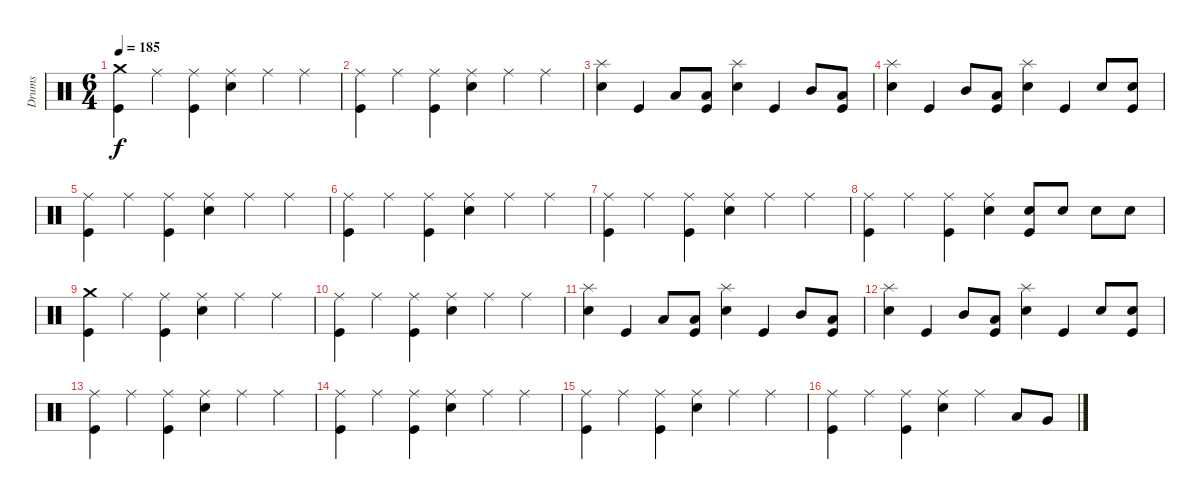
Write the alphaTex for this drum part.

\track ("Drums" "Drums") {instrument percussion}
\staff {score}
\articulation defaults
\ts (6 4)
\tempo 185
\clef neutral
\ks c
("Crash medium (hit)" "Kick (hit)").4{dy f} "Ride (middle)".4 ("Ride (middle)" "Kick (hit)").4 ("Ride (middle)" "Electric Snare (hit)").4 "Ride (middle)".4 "Ride (middle)".4 |
("Ride (middle)" "Kick (hit)").4 "Ride (middle)".4 ("Ride (middle)" "Kick (hit)").4 ("Ride (middle)" "Electric Snare (hit)").4 "Ride (middle)".4 "Ride (middle)".4 |
("Splash (hit)" "Electric Snare (hit)").4 "Kick (hit)".4 "Low Tom (hit)".8 ("Low Tom (hit)" "Kick (hit)").8 ("Splash (hit)" "Electric Snare (hit)").4 "Kick (hit)".4 "Mid Tom (hit)".8 ("Low Tom (hit)" "Kick (hit)").8 |
("Splash (hit)" "Electric Snare (hit)").4 "Kick (hit)".4 "Mid Tom (hit)".8 ("Low Tom (hit)" "Kick (hit)").8 ("Splash (hit)" "Electric Snare (hit)").4 "Kick (hit)".4 "Electric Snare (hit)".8 ("Electric Snare (hit)" "Kick (hit)").8 |
("Ride (middle)" "Kick (hit)").4 "Ride (middle)".4 ("Ride (middle)" "Kick (hit)").4 ("Ride (middle)" "Electric Snare (hit)").4 "Ride (middle)".4 "Ride (middle)".4 |
("Ride (middle)" "Kick (hit)").4 "Ride (middle)".4 ("Ride (middle)" "Kick (hit)").4 ("Ride (middle)" "Electric Snare (hit)").4 "Ride (middle)".4 "Ride (middle)".4 |
("Ride (middle)" "Kick (hit)").4 "Ride (middle)".4 ("Ride (middle)" "Kick (hit)").4 ("Ride (middle)" "Electric Snare (hit)").4 "Ride (middle)".4 "Ride (middle)".4 |
("Ride (middle)" "Kick (hit)").4 "Ride (middle)".4 ("Ride (middle)" "Kick (hit)").4 ("Ride (middle)" "Electric Snare (hit)").4 ("Electric Snare (hit)" "Kick (hit)").8 "Electric Snare (hit)".8 "Electric Snare (hit)".8 "Electric Snare (hit)".8 |
("Crash medium (hit)" "Kick (hit)").4 "Ride (middle)".4 ("Ride (middle)" "Kick (hit)").4 ("Ride (middle)" "Electric Snare (hit)").4 "Ride (middle)".4 "Ride (middle)".4 |
("Ride (middle)" "Kick (hit)").4 "Ride (middle)".4 ("Ride (middle)" "Kick (hit)").4 ("Ride (middle)" "Electric Snare (hit)").4 "Ride (middle)".4 "Ride (middle)".4 |
("Splash (hit)" "Electric Snare (hit)").4 "Kick (hit)".4 "Low Tom (hit)".8 ("Low Tom (hit)" "Kick (hit)").8 ("Splash (hit)" "Electric Snare (hit)").4 "Kick (hit)".4 "Mid Tom (hit)".8 ("Low Tom (hit)" "Kick (hit)").8 |
("Splash (hit)" "Electric Snare (hit)").4 "Kick (hit)".4 "Mid Tom (hit)".8 ("Low Tom (hit)" "Kick (hit)").8 ("Splash (hit)" "Electric Snare (hit)").4 "Kick (hit)".4 "Electric Snare (hit)".8 ("Electric Snare (hit)" "Kick (hit)").8 |
("Ride (middle)" "Kick (hit)").4 "Ride (middle)".4 ("Ride (middle)" "Kick (hit)").4 ("Ride (middle)" "Electric Snare (hit)").4 "Ride (middle)".4 "Ride (middle)".4 |
("Ride (middle)" "Kick (hit)").4 "Ride (middle)".4 ("Ride (middle)" "Kick (hit)").4 ("Ride (middle)" "Electric Snare (hit)").4 "Ride (middle)".4 "Ride (middle)".4 |
("Ride (middle)" "Kick (hit)").4 "Ride (middle)".4 ("Ride (middle)" "Kick (hit)").4 ("Ride (middle)" "Electric Snare (hit)").4 "Ride (middle)".4 "Ride (middle)".4 |
("Ride (middle)" "Kick (hit)").4 "Ride (middle)".4 ("Ride (middle)" "Kick (hit)").4 ("Ride (middle)" "Electric Snare (hit)").4 "Ride (middle)".4 "Low Tom (hit)".8 "Very Low Tom (hit)".8
